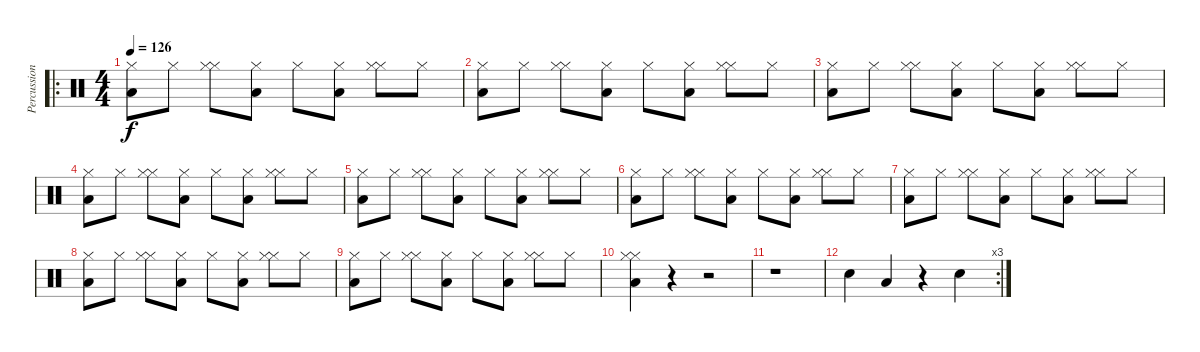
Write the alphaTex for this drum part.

\track ("Percussion" "Percussion") {instrument percussion}
\staff {score}
\articulation defaults
\ro
\ts (4 4)
\tempo 126
\clef neutral
\ks c
("Hi-Hat (closed)" "Low Floor Tom (hit)").8{dy f} "Hi-Hat (closed)".8 ("Hi-Hat (closed)" "Hi-Hat (closed)").8 ("Hi-Hat (closed)" "Low Floor Tom (hit)").8 "Hi-Hat (closed)".8 ("Hi-Hat (closed)" "Low Floor Tom (hit)").8 ("Hi-Hat (closed)" "Hi-Hat (closed)").8 "Hi-Hat (closed)".8 |
("Hi-Hat (closed)" "Low Floor Tom (hit)").8 "Hi-Hat (closed)".8 ("Hi-Hat (closed)" "Hi-Hat (closed)").8 ("Hi-Hat (closed)" "Low Floor Tom (hit)").8 "Hi-Hat (closed)".8 ("Hi-Hat (closed)" "Low Floor Tom (hit)").8 ("Hi-Hat (closed)" "Hi-Hat (closed)").8 "Hi-Hat (closed)".8 |
("Hi-Hat (closed)" "Low Floor Tom (hit)").8 "Hi-Hat (closed)".8 ("Hi-Hat (closed)" "Hi-Hat (closed)").8 ("Hi-Hat (closed)" "Low Floor Tom (hit)").8 "Hi-Hat (closed)".8 ("Hi-Hat (closed)" "Low Floor Tom (hit)").8 ("Hi-Hat (closed)" "Hi-Hat (closed)").8 "Hi-Hat (closed)".8 |
("Hi-Hat (closed)" "Low Floor Tom (hit)").8 "Hi-Hat (closed)".8 ("Hi-Hat (closed)" "Hi-Hat (closed)").8 ("Hi-Hat (closed)" "Low Floor Tom (hit)").8 "Hi-Hat (closed)".8 ("Hi-Hat (closed)" "Low Floor Tom (hit)").8 ("Hi-Hat (closed)" "Hi-Hat (closed)").8 "Hi-Hat (closed)".8 |
("Hi-Hat (closed)" "Low Floor Tom (hit)").8 "Hi-Hat (closed)".8 ("Hi-Hat (closed)" "Hi-Hat (closed)").8 ("Hi-Hat (closed)" "Low Floor Tom (hit)").8 "Hi-Hat (closed)".8 ("Hi-Hat (closed)" "Low Floor Tom (hit)").8 ("Hi-Hat (closed)" "Hi-Hat (closed)").8 "Hi-Hat (closed)".8 |
("Hi-Hat (closed)" "Low Floor Tom (hit)").8 "Hi-Hat (closed)".8 ("Hi-Hat (closed)" "Hi-Hat (closed)").8 ("Hi-Hat (closed)" "Low Floor Tom (hit)").8 "Hi-Hat (closed)".8 ("Hi-Hat (closed)" "Low Floor Tom (hit)").8 ("Hi-Hat (closed)" "Hi-Hat (closed)").8 "Hi-Hat (closed)".8 |
("Hi-Hat (closed)" "Low Floor Tom (hit)").8 "Hi-Hat (closed)".8 ("Hi-Hat (closed)" "Hi-Hat (closed)").8 ("Hi-Hat (closed)" "Low Floor Tom (hit)").8 "Hi-Hat (closed)".8 ("Hi-Hat (closed)" "Low Floor Tom (hit)").8 ("Hi-Hat (closed)" "Hi-Hat (closed)").8 "Hi-Hat (closed)".8 |
("Hi-Hat (closed)" "Low Floor Tom (hit)").8 "Hi-Hat (closed)".8 ("Hi-Hat (closed)" "Hi-Hat (closed)").8 ("Hi-Hat (closed)" "Low Floor Tom (hit)").8 "Hi-Hat (closed)".8 ("Hi-Hat (closed)" "Low Floor Tom (hit)").8 ("Hi-Hat (closed)" "Hi-Hat (closed)").8 "Hi-Hat (closed)".8 |
("Hi-Hat (closed)" "Low Floor Tom (hit)").8 "Hi-Hat (closed)".8 ("Hi-Hat (closed)" "Hi-Hat (closed)").8 ("Hi-Hat (closed)" "Low Floor Tom (hit)").8 "Hi-Hat (closed)".8 ("Hi-Hat (closed)" "Low Floor Tom (hit)").8 ("Hi-Hat (closed)" "Hi-Hat (closed)").8 "Hi-Hat (closed)".8 |
("Hi-Hat (closed)" "Hi-Hat (closed)" "Low Floor Tom (hit)").4 r.4 r.2 |
r.1 |
\rc 3 "Snare (hit) 2".4 "Low Floor Tom (hit)".4
r.4 "Snare (hit) 2".4
